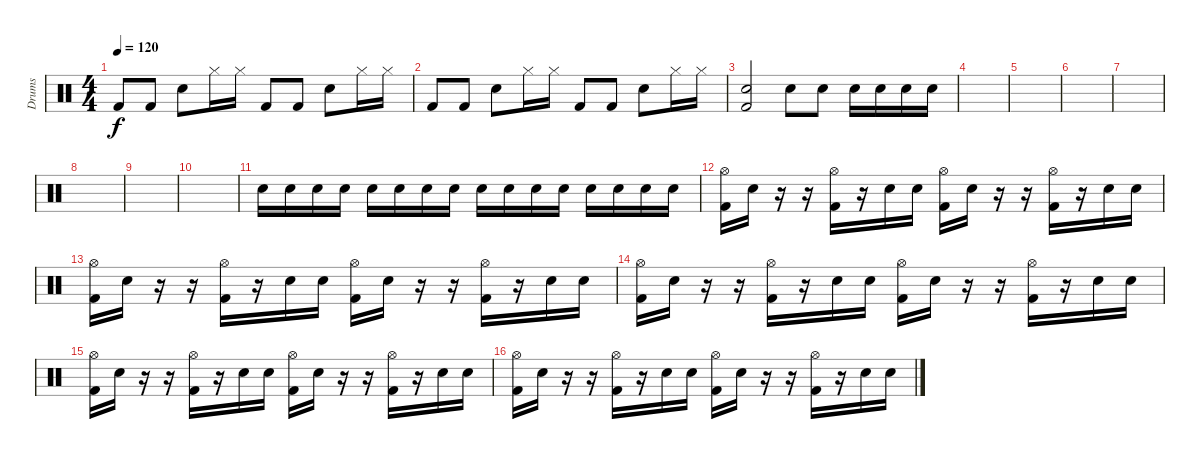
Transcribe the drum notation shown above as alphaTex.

\track ("Drums" "Drums") {instrument percussion}
\staff {score}
\articulation defaults
\ts (4 4)
\tempo 120
\clef neutral
\ks c "Kick (hit) 2".8{dy f} "Kick (hit) 2".8 "Snare (hit) 2".8 "Hi-Hat (closed)".16 "Hi-Hat (closed)".16 "Kick (hit) 2".8 "Kick (hit) 2".8 "Snare (hit) 2".8 "Hi-Hat (closed)".16 "Hi-Hat (closed)".16
|
"Kick (hit) 2".8 "Kick (hit) 2".8 "Snare (hit) 2".8 "Hi-Hat (closed)".16 "Hi-Hat (closed)".16 "Kick (hit) 2".8 "Kick (hit) 2".8 "Snare (hit) 2".8 "Hi-Hat (closed)".16 "Hi-Hat (closed)".16 |
("Snare (hit) 2" "Kick (hit) 2").2 "Snare (hit) 2".8 "Snare (hit) 2".8 "Snare (hit) 2".16 "Snare (hit) 2".16 "Snare (hit) 2".16 "Snare (hit) 2".16 |
\section ("" "")
|
|
|
|
|
|
|
"Snare (hit) 2".16 "Snare (hit) 2".16 "Snare (hit) 2".16 "Snare (hit) 2".16 "Electric Snare (hit)".16 "Electric Snare (hit)".16 "Electric Snare (hit)".16 "Electric Snare (hit)".16 "Snare (hit) 2".16 "Snare (hit) 2".16 "Snare (hit) 2".16 "Snare (hit) 2".16 "Electric Snare (hit)".16 "Electric Snare (hit)".16 "Electric Snare (hit)".16 "Electric Snare (hit)".16 |
\section ("" "")
("Hi-Hat (open)" "Kick (hit) 2").16 "Snare (hit) 2".16 r.16 r.16 ("Hi-Hat (open)" "Kick (hit) 2").16 r.16 "Snare (hit) 2".16 "Electric Snare (hit)".16 ("Hi-Hat (open)" "Kick (hit) 2").16 "Snare (hit) 2".16 r.16 r.16 ("Hi-Hat (open)" "Kick (hit) 2").16 r.16 "Snare (hit) 2".16 "Electric Snare (hit)".16 |
("Hi-Hat (open)" "Kick (hit) 2").16 "Snare (hit) 2".16 r.16 r.16 ("Hi-Hat (open)" "Kick (hit) 2").16 r.16 "Snare (hit) 2".16 "Electric Snare (hit)".16 ("Hi-Hat (open)" "Kick (hit) 2").16 "Snare (hit) 2".16 r.16 r.16 ("Hi-Hat (open)" "Kick (hit) 2").16 r.16 "Snare (hit) 2".16 "Electric Snare (hit)".16 |
("Hi-Hat (open)" "Kick (hit) 2").16 "Snare (hit) 2".16 r.16 r.16 ("Hi-Hat (open)" "Kick (hit) 2").16 r.16 "Snare (hit) 2".16 "Electric Snare (hit)".16 ("Hi-Hat (open)" "Kick (hit) 2").16 "Snare (hit) 2".16 r.16 r.16 ("Hi-Hat (open)" "Kick (hit) 2").16 r.16 "Snare (hit) 2".16 "Electric Snare (hit)".16 |
("Hi-Hat (open)" "Kick (hit) 2").16 "Snare (hit) 2".16 r.16 r.16 ("Hi-Hat (open)" "Kick (hit) 2").16 r.16 "Snare (hit) 2".16 "Electric Snare (hit)".16 ("Hi-Hat (open)" "Kick (hit) 2").16 "Snare (hit) 2".16 r.16 r.16 ("Hi-Hat (open)" "Kick (hit) 2").16 r.16 "Snare (hit) 2".16 "Electric Snare (hit)".16 |
("Hi-Hat (open)" "Kick (hit) 2").16 "Snare (hit) 2".16 r.16 r.16 ("Hi-Hat (open)" "Kick (hit) 2").16 r.16 "Snare (hit) 2".16 "Electric Snare (hit)".16 ("Hi-Hat (open)" "Kick (hit) 2").16 "Snare (hit) 2".16 r.16 r.16 ("Hi-Hat (open)" "Kick (hit) 2").16 r.16 "Snare (hit) 2".16 "Electric Snare (hit)".16
